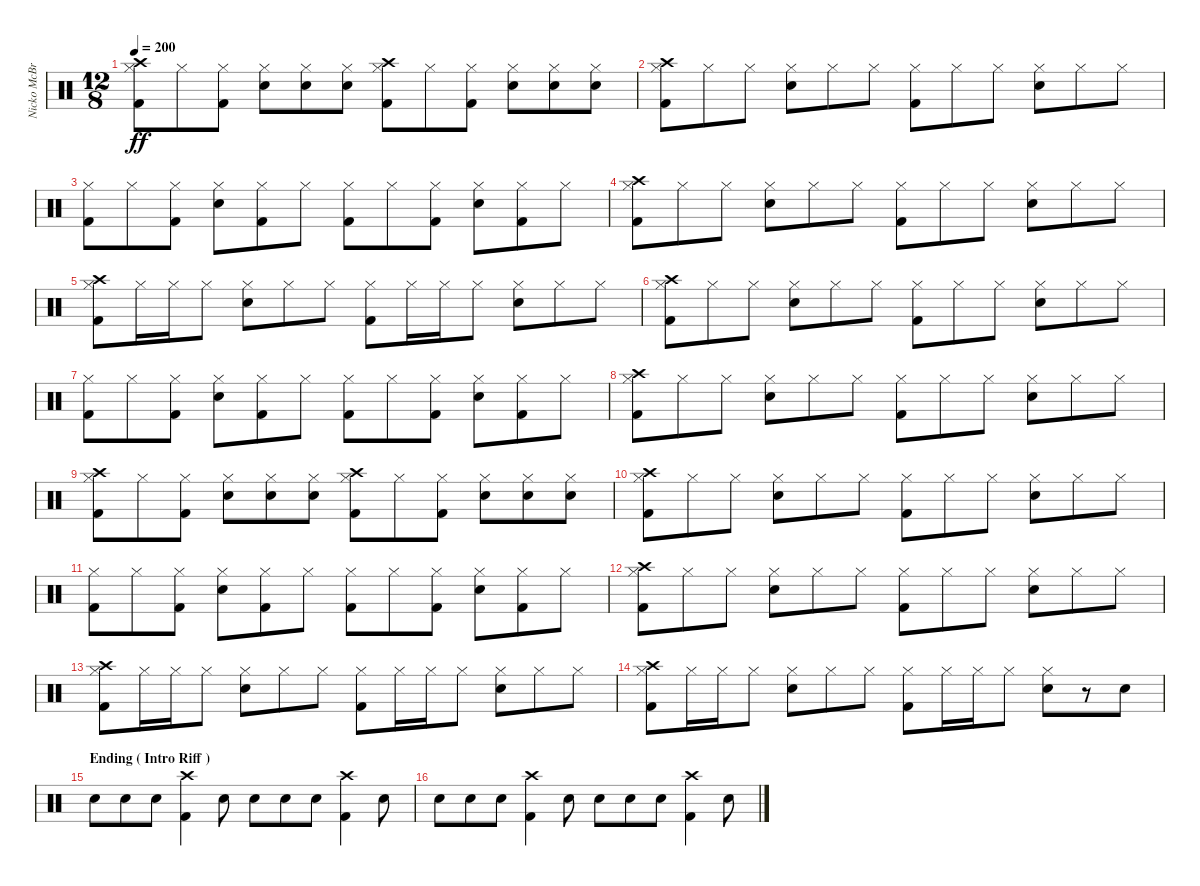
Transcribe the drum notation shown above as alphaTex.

\track ("Nicko McBrain" "Nicko McBr") {instrument percussion}
\staff {score}
\articulation defaults
\ts (12 8)
\tempo 200
\clef neutral
\ks c
("Kick (hit) 2" "Hi-Hat (closed)" "Crash high (hit)").8{dy ff} "Hi-Hat (closed)".8 ("Kick (hit) 2" "Hi-Hat (closed)").8 ("Snare (hit) 2" "Hi-Hat (closed)").8 ("Snare (hit) 2" "Hi-Hat (closed)").8 ("Snare (hit) 2" "Hi-Hat (closed)").8 ("Kick (hit) 2" "Hi-Hat (closed)" "Crash high (hit)").8 "Hi-Hat (closed)".8 ("Kick (hit) 2" "Hi-Hat (closed)").8 ("Snare (hit) 2" "Hi-Hat (closed)").8 ("Snare (hit) 2" "Hi-Hat (closed)").8 ("Snare (hit) 2" "Hi-Hat (closed)").8 |
("Kick (hit) 2" "Hi-Hat (closed)" "Crash high (hit)").8 "Hi-Hat (closed)".8 "Hi-Hat (closed)".8 ("Snare (hit) 2" "Hi-Hat (closed)").8 "Hi-Hat (closed)".8 "Hi-Hat (closed)".8 ("Kick (hit) 2" "Hi-Hat (closed)").8 "Hi-Hat (closed)".8 "Hi-Hat (closed)".8 ("Snare (hit) 2" "Hi-Hat (closed)").8 "Hi-Hat (closed)".8 "Hi-Hat (closed)".8 |
("Kick (hit) 2" "Hi-Hat (closed)").8 "Hi-Hat (closed)".8 ("Kick (hit) 2" "Hi-Hat (closed)").8 ("Snare (hit) 2" "Hi-Hat (closed)").8 ("Kick (hit) 2" "Hi-Hat (closed)").8 "Hi-Hat (closed)".8 ("Kick (hit) 2" "Hi-Hat (closed)").8 "Hi-Hat (closed)".8 ("Kick (hit) 2" "Hi-Hat (closed)").8 ("Snare (hit) 2" "Hi-Hat (closed)").8 ("Kick (hit) 2" "Hi-Hat (closed)").8 "Hi-Hat (closed)".8 |
("Kick (hit) 2" "Hi-Hat (closed)" "Crash high (hit)").8 "Hi-Hat (closed)".8 "Hi-Hat (closed)".8 ("Snare (hit) 2" "Hi-Hat (closed)").8 "Hi-Hat (closed)".8 "Hi-Hat (closed)".8 ("Kick (hit) 2" "Hi-Hat (closed)").8 "Hi-Hat (closed)".8 "Hi-Hat (closed)".8 ("Snare (hit) 2" "Hi-Hat (closed)").8 "Hi-Hat (closed)".8 "Hi-Hat (closed)".8 |
("Kick (hit) 2" "Hi-Hat (closed)" "Crash high (hit)").8 "Hi-Hat (closed)".16 "Hi-Hat (closed)".16 "Hi-Hat (closed)".8 ("Snare (hit) 2" "Hi-Hat (closed)").8 "Hi-Hat (closed)".8 "Hi-Hat (closed)".8 ("Kick (hit) 2" "Hi-Hat (closed)").8 "Hi-Hat (closed)".16 "Hi-Hat (closed)".16 "Hi-Hat (closed)".8 ("Snare (hit) 2" "Hi-Hat (closed)").8 "Hi-Hat (closed)".8 "Hi-Hat (closed)".8 |
("Kick (hit) 2" "Hi-Hat (closed)" "Crash high (hit)").8 "Hi-Hat (closed)".8 "Hi-Hat (closed)".8 ("Snare (hit) 2" "Hi-Hat (closed)").8 "Hi-Hat (closed)".8 "Hi-Hat (closed)".8 ("Kick (hit) 2" "Hi-Hat (closed)").8 "Hi-Hat (closed)".8 "Hi-Hat (closed)".8 ("Snare (hit) 2" "Hi-Hat (closed)").8 "Hi-Hat (closed)".8 "Hi-Hat (closed)".8 |
("Kick (hit) 2" "Hi-Hat (closed)").8 "Hi-Hat (closed)".8 ("Kick (hit) 2" "Hi-Hat (closed)").8 ("Snare (hit) 2" "Hi-Hat (closed)").8 ("Kick (hit) 2" "Hi-Hat (closed)").8 "Hi-Hat (closed)".8 ("Kick (hit) 2" "Hi-Hat (closed)").8 "Hi-Hat (closed)".8 ("Kick (hit) 2" "Hi-Hat (closed)").8 ("Snare (hit) 2" "Hi-Hat (closed)").8 ("Kick (hit) 2" "Hi-Hat (closed)").8 "Hi-Hat (closed)".8 |
("Kick (hit) 2" "Hi-Hat (closed)" "Crash high (hit)").8 "Hi-Hat (closed)".8 "Hi-Hat (closed)".8 ("Snare (hit) 2" "Hi-Hat (closed)").8 "Hi-Hat (closed)".8 "Hi-Hat (closed)".8 ("Kick (hit) 2" "Hi-Hat (closed)").8 "Hi-Hat (closed)".8 "Hi-Hat (closed)".8 ("Snare (hit) 2" "Hi-Hat (closed)").8 "Hi-Hat (closed)".8 "Hi-Hat (closed)".8 |
("Kick (hit) 2" "Hi-Hat (closed)" "Crash high (hit)").8 "Hi-Hat (closed)".8 ("Kick (hit) 2" "Hi-Hat (closed)").8 ("Snare (hit) 2" "Hi-Hat (closed)").8 ("Snare (hit) 2" "Hi-Hat (closed)").8 ("Snare (hit) 2" "Hi-Hat (closed)").8 ("Kick (hit) 2" "Hi-Hat (closed)" "Crash high (hit)").8 "Hi-Hat (closed)".8 ("Kick (hit) 2" "Hi-Hat (closed)").8 ("Snare (hit) 2" "Hi-Hat (closed)").8 ("Snare (hit) 2" "Hi-Hat (closed)").8 ("Snare (hit) 2" "Hi-Hat (closed)").8 |
("Kick (hit) 2" "Hi-Hat (closed)" "Crash high (hit)").8 "Hi-Hat (closed)".8 "Hi-Hat (closed)".8 ("Snare (hit) 2" "Hi-Hat (closed)").8 "Hi-Hat (closed)".8 "Hi-Hat (closed)".8 ("Kick (hit) 2" "Hi-Hat (closed)").8 "Hi-Hat (closed)".8 "Hi-Hat (closed)".8 ("Snare (hit) 2" "Hi-Hat (closed)").8 "Hi-Hat (closed)".8 "Hi-Hat (closed)".8 |
("Kick (hit) 2" "Hi-Hat (closed)").8 "Hi-Hat (closed)".8 ("Kick (hit) 2" "Hi-Hat (closed)").8 ("Snare (hit) 2" "Hi-Hat (closed)").8 ("Kick (hit) 2" "Hi-Hat (closed)").8 "Hi-Hat (closed)".8 ("Kick (hit) 2" "Hi-Hat (closed)").8 "Hi-Hat (closed)".8 ("Kick (hit) 2" "Hi-Hat (closed)").8 ("Snare (hit) 2" "Hi-Hat (closed)").8 ("Kick (hit) 2" "Hi-Hat (closed)").8 "Hi-Hat (closed)".8 |
("Kick (hit) 2" "Hi-Hat (closed)" "Crash high (hit)").8 "Hi-Hat (closed)".8 "Hi-Hat (closed)".8 ("Snare (hit) 2" "Hi-Hat (closed)").8 "Hi-Hat (closed)".8 "Hi-Hat (closed)".8 ("Kick (hit) 2" "Hi-Hat (closed)").8 "Hi-Hat (closed)".8 "Hi-Hat (closed)".8 ("Snare (hit) 2" "Hi-Hat (closed)").8 "Hi-Hat (closed)".8 "Hi-Hat (closed)".8 |
("Kick (hit) 2" "Hi-Hat (closed)" "Crash high (hit)").8 "Hi-Hat (closed)".16 "Hi-Hat (closed)".16 "Hi-Hat (closed)".8 ("Snare (hit) 2" "Hi-Hat (closed)").8 "Hi-Hat (closed)".8 "Hi-Hat (closed)".8 ("Kick (hit) 2" "Hi-Hat (closed)").8 "Hi-Hat (closed)".16 "Hi-Hat (closed)".16 "Hi-Hat (closed)".8 ("Snare (hit) 2" "Hi-Hat (closed)").8 "Hi-Hat (closed)".8 "Hi-Hat (closed)".8 |
("Kick (hit) 2" "Hi-Hat (closed)" "Crash high (hit)").8 "Hi-Hat (closed)".16 "Hi-Hat (closed)".16 "Hi-Hat (closed)".8 ("Snare (hit) 2" "Hi-Hat (closed)").8 "Hi-Hat (closed)".8 "Hi-Hat (closed)".8 ("Kick (hit) 2" "Hi-Hat (closed)").8 "Hi-Hat (closed)".16 "Hi-Hat (closed)".16 "Hi-Hat (closed)".8 ("Snare (hit) 2" "Hi-Hat (closed)").8 r.8 "Snare (hit) 2".8 |
\section ("" "Ending ( Intro Riff )")
"Snare (hit) 2".8 "Snare (hit) 2".8 "Snare (hit) 2".8 ("Kick (hit) 2" "Crash high (hit)").4 "Snare (hit) 2".8 "Snare (hit) 2".8 "Snare (hit) 2".8 "Snare (hit) 2".8 ("Kick (hit) 2" "Crash high (hit)").4 "Snare (hit) 2".8 |
"Snare (hit) 2".8 "Snare (hit) 2".8 "Snare (hit) 2".8 ("Kick (hit) 2" "Crash high (hit)").4 "Snare (hit) 2".8 "Snare (hit) 2".8 "Snare (hit) 2".8 "Snare (hit) 2".8 ("Kick (hit) 2" "Crash high (hit)").4 "Snare (hit) 2".8
